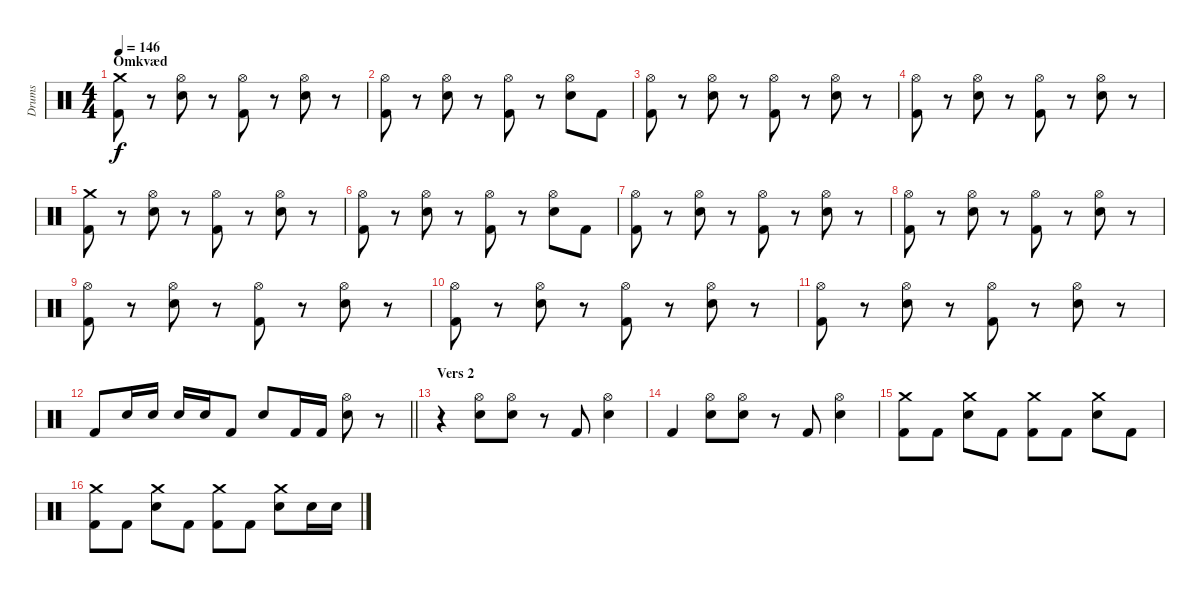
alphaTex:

\track ("Drums" "Drums") {instrument percussion}
\staff {score}
\articulation defaults
\ts (4 4)
\section ("" "Omkvæd")
\tempo 146
\clef neutral
\ks c
("Crash medium (hit)" "Kick (hit) 2").8{dy f} r.8 ("Hi-Hat (open)" "Electric Snare (hit)").8 r.8 ("Hi-Hat (open)" "Kick (hit) 2").8 r.8 ("Hi-Hat (open)" "Electric Snare (hit)").8 r.8 |
("Hi-Hat (open)" "Kick (hit) 2").8 r.8 ("Hi-Hat (open)" "Electric Snare (hit)").8 r.8 ("Hi-Hat (open)" "Kick (hit) 2").8 r.8 ("Hi-Hat (open)" "Electric Snare (hit)").8 "Kick (hit) 2".8 |
("Hi-Hat (open)" "Kick (hit) 2").8 r.8 ("Hi-Hat (open)" "Electric Snare (hit)").8 r.8 ("Hi-Hat (open)" "Kick (hit) 2").8 r.8 ("Hi-Hat (open)" "Electric Snare (hit)").8 r.8 |
("Hi-Hat (open)" "Kick (hit) 2").8 r.8 ("Hi-Hat (open)" "Electric Snare (hit)").8 r.8 ("Hi-Hat (open)" "Kick (hit) 2").8 r.8 ("Hi-Hat (open)" "Electric Snare (hit)").8 r.8 |
("Crash medium (hit)" "Kick (hit) 2").8 r.8 ("Hi-Hat (open)" "Electric Snare (hit)").8 r.8 ("Hi-Hat (open)" "Kick (hit) 2").8 r.8 ("Hi-Hat (open)" "Electric Snare (hit)").8 r.8 |
("Hi-Hat (open)" "Kick (hit) 2").8 r.8 ("Hi-Hat (open)" "Electric Snare (hit)").8 r.8 ("Hi-Hat (open)" "Kick (hit) 2").8 r.8 ("Hi-Hat (open)" "Electric Snare (hit)").8 "Kick (hit) 2".8 |
("Hi-Hat (open)" "Kick (hit) 2").8 r.8 ("Hi-Hat (open)" "Electric Snare (hit)").8 r.8 ("Hi-Hat (open)" "Kick (hit) 2").8 r.8 ("Hi-Hat (open)" "Electric Snare (hit)").8 r.8 |
("Hi-Hat (open)" "Kick (hit) 2").8 r.8 ("Hi-Hat (open)" "Electric Snare (hit)").8 r.8 ("Hi-Hat (open)" "Kick (hit) 2").8 r.8 ("Hi-Hat (open)" "Electric Snare (hit)").8 r.8 |
("Hi-Hat (open)" "Kick (hit) 2").8 r.8 ("Hi-Hat (open)" "Electric Snare (hit)").8 r.8 ("Hi-Hat (open)" "Kick (hit) 2").8 r.8 ("Hi-Hat (open)" "Electric Snare (hit)").8 r.8 |
("Hi-Hat (open)" "Kick (hit) 2").8 r.8 ("Hi-Hat (open)" "Electric Snare (hit)").8 r.8 ("Hi-Hat (open)" "Kick (hit) 2").8 r.8 ("Hi-Hat (open)" "Electric Snare (hit)").8 r.8 |
("Hi-Hat (open)" "Kick (hit) 2").8 r.8 ("Hi-Hat (open)" "Electric Snare (hit)").8 r.8 ("Hi-Hat (open)" "Kick (hit) 2").8 r.8 ("Hi-Hat (open)" "Electric Snare (hit)").8 r.8 |
\barLineRight lightlight "Kick (hit) 2".8 "Electric Snare (hit)".16 "Electric Snare (hit)".16 "Electric Snare (hit)".16 "Electric Snare (hit)".16 "Kick (hit) 2".8 "Electric Snare (hit)".8 "Kick (hit) 2".16 "Kick (hit) 2".16
("Hi-Hat (open)" "Electric Snare (hit)").8 r.8 |
\section ("" "Vers 2")
r.4 ("Hi-Hat (open)" "Electric Snare (hit)").8 ("Hi-Hat (open)" "Electric Snare (hit)").8 r.8 "Kick (hit) 2".8 ("Hi-Hat (open)" "Electric Snare (hit)").4 |
"Kick (hit) 2".4 ("Hi-Hat (open)" "Electric Snare (hit)").8 ("Hi-Hat (open)" "Electric Snare (hit)").8 r.8 "Kick (hit) 2".8 ("Hi-Hat (open)" "Electric Snare (hit)").4 |
("Crash medium (hit)" "Kick (hit) 2").8 "Kick (hit) 2".8 ("Crash medium (hit)" "Electric Snare (hit)").8 "Kick (hit) 2".8 ("Crash medium (hit)" "Kick (hit) 2").8 "Kick (hit) 2".8 ("Crash medium (hit)" "Electric Snare (hit)").8 "Kick (hit) 2".8 |
("Crash medium (hit)" "Kick (hit) 2").8 "Kick (hit) 2".8 ("Crash medium (hit)" "Electric Snare (hit)").8 "Kick (hit) 2".8 ("Crash medium (hit)" "Kick (hit) 2").8 "Kick (hit) 2".8 ("Crash medium (hit)" "Electric Snare (hit)").8 "Electric Snare (hit)".16 "Electric Snare (hit)".16
